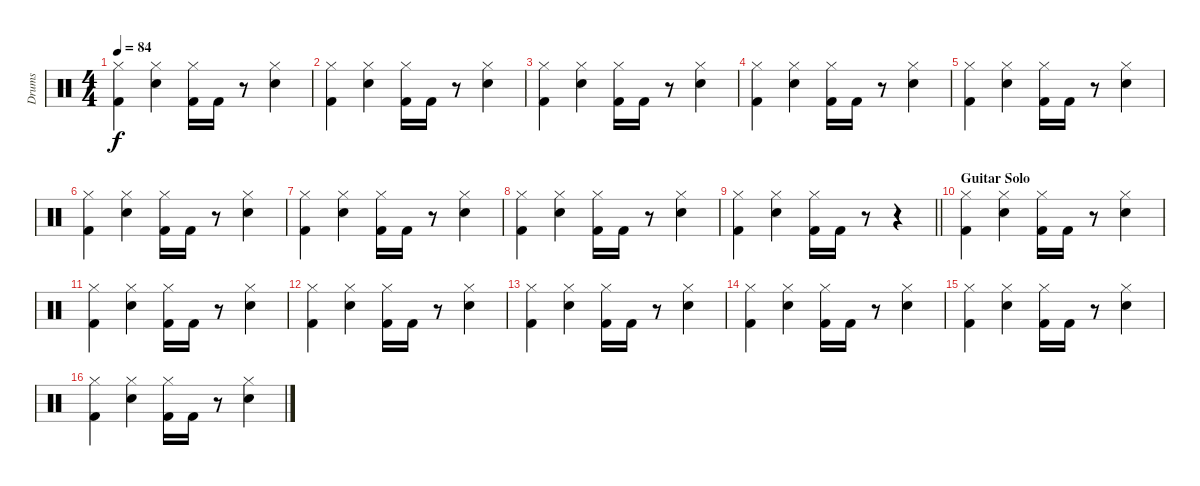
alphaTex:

\track ("Drums" "Drums") {instrument percussion}
\staff {score}
\articulation defaults
\ts (4 4)
\tempo 84
\clef neutral
\ks c
("Hi-Hat (closed)" "Kick (hit) 2").4{dy f} ("Hi-Hat (closed)" "Snare (hit) 2").4 ("Hi-Hat (closed)" "Kick (hit) 2").16 "Kick (hit) 2".16 r.8 ("Hi-Hat (closed)" "Snare (hit) 2").4 |
("Hi-Hat (closed)" "Kick (hit) 2").4 ("Hi-Hat (closed)" "Snare (hit) 2").4 ("Hi-Hat (closed)" "Kick (hit) 2").16 "Kick (hit) 2".16 r.8 ("Hi-Hat (closed)" "Snare (hit) 2").4 |
("Hi-Hat (closed)" "Kick (hit) 2").4 ("Hi-Hat (closed)" "Snare (hit) 2").4 ("Hi-Hat (closed)" "Kick (hit) 2").16 "Kick (hit) 2".16 r.8 ("Hi-Hat (closed)" "Snare (hit) 2").4 |
("Hi-Hat (closed)" "Kick (hit) 2").4 ("Hi-Hat (closed)" "Snare (hit) 2").4 ("Hi-Hat (closed)" "Kick (hit) 2").16 "Kick (hit) 2".16 r.8 ("Hi-Hat (closed)" "Snare (hit) 2").4 |
("Hi-Hat (closed)" "Kick (hit) 2").4 ("Hi-Hat (closed)" "Snare (hit) 2").4 ("Hi-Hat (closed)" "Kick (hit) 2").16 "Kick (hit) 2".16 r.8 ("Hi-Hat (closed)" "Snare (hit) 2").4 |
("Hi-Hat (closed)" "Kick (hit) 2").4 ("Hi-Hat (closed)" "Snare (hit) 2").4 ("Hi-Hat (closed)" "Kick (hit) 2").16 "Kick (hit) 2".16 r.8 ("Hi-Hat (closed)" "Snare (hit) 2").4 |
("Hi-Hat (closed)" "Kick (hit) 2").4 ("Hi-Hat (closed)" "Snare (hit) 2").4 ("Hi-Hat (closed)" "Kick (hit) 2").16 "Kick (hit) 2".16 r.8 ("Hi-Hat (closed)" "Snare (hit) 2").4 |
("Hi-Hat (closed)" "Kick (hit) 2").4 ("Hi-Hat (closed)" "Snare (hit) 2").4 ("Hi-Hat (closed)" "Kick (hit) 2").16 "Kick (hit) 2".16 r.8 ("Hi-Hat (closed)" "Snare (hit) 2").4 |
\barLineRight lightlight
("Hi-Hat (closed)" "Kick (hit) 2").4 ("Hi-Hat (closed)" "Snare (hit) 2").4 ("Hi-Hat (closed)" "Kick (hit) 2").16 "Kick (hit) 2".16 r.8 r.4 |
\section ("" "Guitar Solo")
("Hi-Hat (closed)" "Kick (hit) 2").4 ("Hi-Hat (closed)" "Snare (hit) 2").4 ("Hi-Hat (closed)" "Kick (hit) 2").16 "Kick (hit) 2".16 r.8 ("Hi-Hat (closed)" "Snare (hit) 2").4 |
("Hi-Hat (closed)" "Kick (hit) 2").4 ("Hi-Hat (closed)" "Snare (hit) 2").4 ("Hi-Hat (closed)" "Kick (hit) 2").16 "Kick (hit) 2".16 r.8 ("Hi-Hat (closed)" "Snare (hit) 2").4 |
("Hi-Hat (closed)" "Kick (hit) 2").4 ("Hi-Hat (closed)" "Snare (hit) 2").4 ("Hi-Hat (closed)" "Kick (hit) 2").16 "Kick (hit) 2".16 r.8 ("Hi-Hat (closed)" "Snare (hit) 2").4 |
("Hi-Hat (closed)" "Kick (hit) 2").4 ("Hi-Hat (closed)" "Snare (hit) 2").4 ("Hi-Hat (closed)" "Kick (hit) 2").16 "Kick (hit) 2".16 r.8 ("Hi-Hat (closed)" "Snare (hit) 2").4 |
("Hi-Hat (closed)" "Kick (hit) 2").4 ("Hi-Hat (closed)" "Snare (hit) 2").4 ("Hi-Hat (closed)" "Kick (hit) 2").16 "Kick (hit) 2".16 r.8 ("Hi-Hat (closed)" "Snare (hit) 2").4 |
("Hi-Hat (closed)" "Kick (hit) 2").4 ("Hi-Hat (closed)" "Snare (hit) 2").4 ("Hi-Hat (closed)" "Kick (hit) 2").16 "Kick (hit) 2".16 r.8 ("Hi-Hat (closed)" "Snare (hit) 2").4 |
("Hi-Hat (closed)" "Kick (hit) 2").4 ("Hi-Hat (closed)" "Snare (hit) 2").4 ("Hi-Hat (closed)" "Kick (hit) 2").16 "Kick (hit) 2".16 r.8 ("Hi-Hat (closed)" "Snare (hit) 2").4
